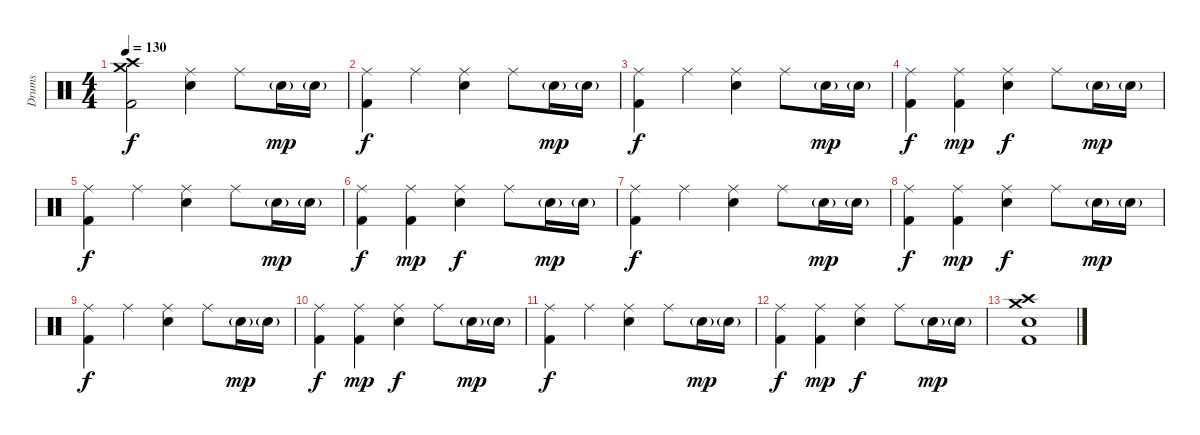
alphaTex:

\track ("Drums" "Drums") {instrument percussion}
\staff {score}
\articulation defaults
\ts (4 4)
\tempo 130
\clef neutral
\ks c
("Crash high (hit)" "Crash medium (hit)" "Kick (hit) 2").2{dy f} ("Ride (middle)" "Electric Snare (hit)").4 "Ride (middle)".8 "Snare (hit) 2"{g}.16{dy mp} "Snare (hit) 2"{g}.16 |
("Ride (middle)" "Kick (hit) 2").4{dy f} "Ride (middle)".4 ("Ride (middle)" "Electric Snare (hit)").4 "Ride (middle)".8 "Snare (hit) 2"{g}.16{dy mp} "Snare (hit) 2"{g}.16 |
("Ride (middle)" "Kick (hit) 2").4{dy f} "Ride (middle)".4 ("Ride (middle)" "Electric Snare (hit)").4 "Ride (middle)".8 "Snare (hit) 2"{g}.16{dy mp} "Snare (hit) 2"{g}.16 |
("Ride (middle)" "Kick (hit) 2").4{dy f} ("Ride (middle)" "Kick (hit) 2").4{dy mp} ("Ride (middle)" "Electric Snare (hit)").4{dy f} "Ride (middle)".8 "Snare (hit) 2"{g}.16{dy mp} "Snare (hit) 2"{g}.16 |
("Ride (middle)" "Kick (hit) 2").4{dy f} "Ride (middle)".4 ("Ride (middle)" "Electric Snare (hit)").4 "Ride (middle)".8 "Snare (hit) 2"{g}.16{dy mp} "Snare (hit) 2"{g}.16 |
("Ride (middle)" "Kick (hit) 2").4{dy f} ("Ride (middle)" "Kick (hit) 2").4{dy mp} ("Ride (middle)" "Electric Snare (hit)").4{dy f} "Ride (middle)".8 "Snare (hit) 2"{g}.16{dy mp} "Snare (hit) 2"{g}.16 |
("Ride (middle)" "Kick (hit) 2").4{dy f} "Ride (middle)".4 ("Ride (middle)" "Electric Snare (hit)").4 "Ride (middle)".8 "Snare (hit) 2"{g}.16{dy mp} "Snare (hit) 2"{g}.16 |
("Ride (middle)" "Kick (hit) 2").4{dy f} ("Ride (middle)" "Kick (hit) 2").4{dy mp} ("Ride (middle)" "Electric Snare (hit)").4{dy f} "Ride (middle)".8 "Snare (hit) 2"{g}.16{dy mp} "Snare (hit) 2"{g}.16 |
("Ride (middle)" "Kick (hit) 2").4{dy f} "Ride (middle)".4 ("Ride (middle)" "Electric Snare (hit)").4 "Ride (middle)".8 "Snare (hit) 2"{g}.16{dy mp} "Snare (hit) 2"{g}.16 |
("Ride (middle)" "Kick (hit) 2").4{dy f} ("Ride (middle)" "Kick (hit) 2").4{dy mp} ("Ride (middle)" "Electric Snare (hit)").4{dy f} "Ride (middle)".8 "Snare (hit) 2"{g}.16{dy mp} "Snare (hit) 2"{g}.16 |
("Ride (middle)" "Kick (hit) 2").4{dy f} "Ride (middle)".4 ("Ride (middle)" "Electric Snare (hit)").4 "Ride (middle)".8 "Snare (hit) 2"{g}.16{dy mp} "Snare (hit) 2"{g}.16 |
("Ride (middle)" "Kick (hit) 2").4{dy f} ("Ride (middle)" "Kick (hit) 2").4{dy mp} ("Ride (middle)" "Electric Snare (hit)").4{dy f} "Ride (middle)".8 "Snare (hit) 2"{g}.16{dy mp} "Snare (hit) 2"{g}.16 |
("Crash high (hit)" "Crash medium (hit)" "Electric Snare (hit)" "Kick (hit) 2").1
